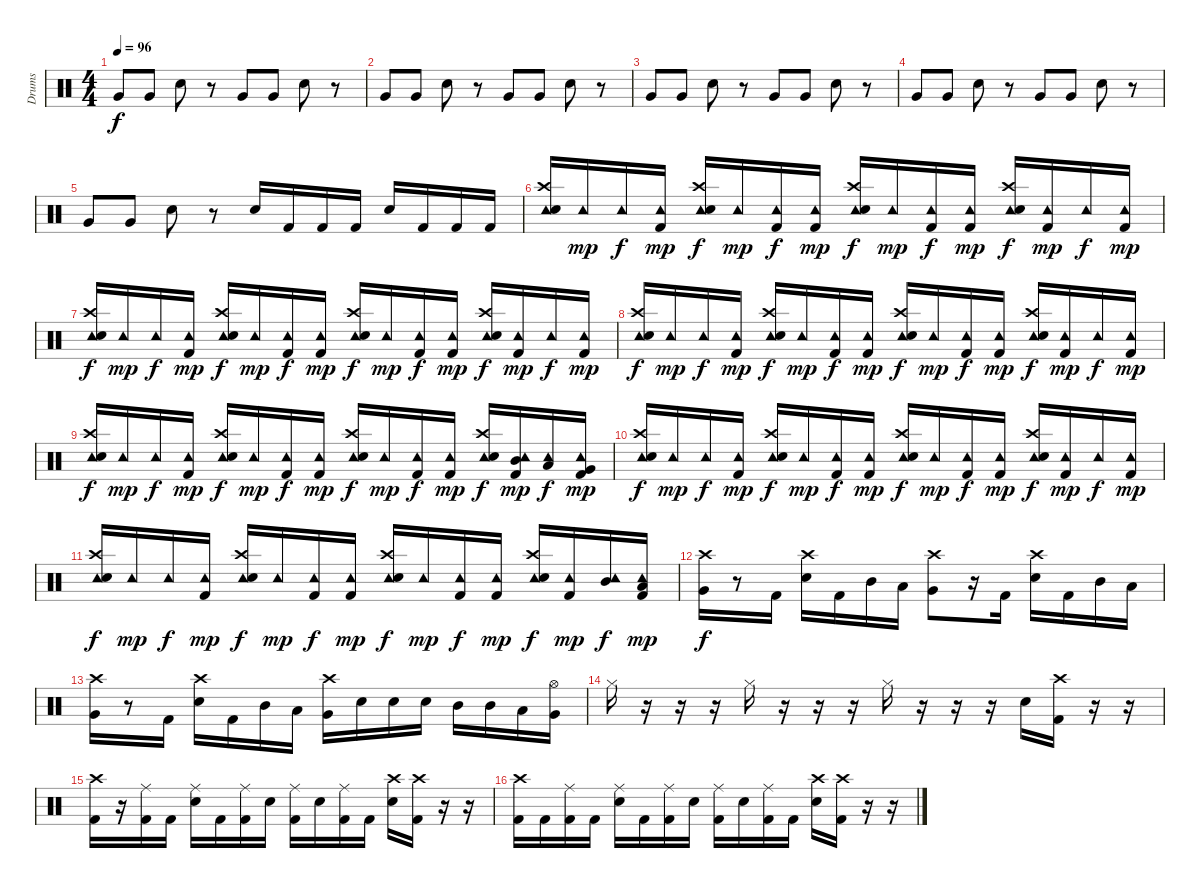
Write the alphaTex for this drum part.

\track ("Drums" "Drums") {instrument percussion}
\staff {score}
\articulation defaults
\ts (4 4)
\tempo 96
\clef neutral
\ks c "Very Low Tom (hit)".8{dy f} "Very Low Tom (hit)".8 "Electric Snare (hit)".8
r.8 "Very Low Tom (hit)".8 "Very Low Tom (hit)".8 "Electric Snare (hit)".8 r.8 |
"Very Low Tom (hit)".8 "Very Low Tom (hit)".8 "Electric Snare (hit)".8 r.8 "Very Low Tom (hit)".8 "Very Low Tom (hit)".8 "Electric Snare (hit)".8 r.8 |
"Very Low Tom (hit)".8 "Very Low Tom (hit)".8 "Electric Snare (hit)".8 r.8 "Very Low Tom (hit)".8 "Very Low Tom (hit)".8 "Electric Snare (hit)".8 r.8 |
"Very Low Tom (hit)".8 "Very Low Tom (hit)".8 "Electric Snare (hit)".8 r.8 "Very Low Tom (hit)".8 "Very Low Tom (hit)".8 "Electric Snare (hit)".8 r.8 |
"Very Low Tom (hit)".8 "Very Low Tom (hit)".8 "Electric Snare (hit)".8 r.8 "Electric Snare (hit)".16 "Kick (hit) 2".16 "Kick (hit) 2".16 "Kick (hit) 2".16 "Electric Snare (hit)".16 "Kick (hit) 2".16 "Kick (hit) 2".16 "Kick (hit) 2".16 |
("Crash high (hit)" "Tambourine (hit)" "Electric Snare (hit)").16 "Tambourine (hit)".16{dy mp} "Tambourine (hit)".16{dy f} ("Tambourine (hit)" "Kick (hit) 2").16{dy mp} ("Crash high (hit)" "Tambourine (hit)" "Electric Snare (hit)").16{dy f} "Tambourine (hit)".16{dy mp} ("Tambourine (hit)" "Kick (hit) 2").16{dy f} ("Tambourine (hit)" "Kick (hit) 2").16{dy mp} ("Crash high (hit)" "Tambourine (hit)" "Electric Snare (hit)").16{dy f} "Tambourine (hit)".16{dy mp} ("Tambourine (hit)" "Kick (hit) 2").16{dy f} ("Tambourine (hit)" "Kick (hit) 2").16{dy mp} ("Crash high (hit)" "Tambourine (hit)" "Electric Snare (hit)").16{dy f} ("Tambourine (hit)" "Kick (hit) 2").16{dy mp} "Tambourine (hit)".16{dy f} ("Tambourine (hit)" "Kick (hit) 2").16{dy mp} |
("Crash high (hit)" "Tambourine (hit)" "Electric Snare (hit)").16{dy f} "Tambourine (hit)".16{dy mp} "Tambourine (hit)".16{dy f} ("Tambourine (hit)" "Kick (hit) 2").16{dy mp} ("Crash high (hit)" "Tambourine (hit)" "Electric Snare (hit)").16{dy f} "Tambourine (hit)".16{dy mp} ("Tambourine (hit)" "Kick (hit) 2").16{dy f} ("Tambourine (hit)" "Kick (hit) 2").16{dy mp} ("Crash high (hit)" "Tambourine (hit)" "Electric Snare (hit)").16{dy f} "Tambourine (hit)".16{dy mp} ("Tambourine (hit)" "Kick (hit) 2").16{dy f} ("Tambourine (hit)" "Kick (hit) 2").16{dy mp} ("Crash high (hit)" "Tambourine (hit)" "Electric Snare (hit)").16{dy f} ("Tambourine (hit)" "Kick (hit) 2").16{dy mp} "Tambourine (hit)".16{dy f} ("Tambourine (hit)" "Kick (hit) 2").16{dy mp} |
("Crash high (hit)" "Tambourine (hit)" "Electric Snare (hit)").16{dy f} "Tambourine (hit)".16{dy mp} "Tambourine (hit)".16{dy f} ("Tambourine (hit)" "Kick (hit) 2").16{dy mp} ("Crash high (hit)" "Tambourine (hit)" "Electric Snare (hit)").16{dy f} "Tambourine (hit)".16{dy mp} ("Tambourine (hit)" "Kick (hit) 2").16{dy f} ("Tambourine (hit)" "Kick (hit) 2").16{dy mp} ("Crash high (hit)" "Tambourine (hit)" "Electric Snare (hit)").16{dy f} "Tambourine (hit)".16{dy mp} ("Tambourine (hit)" "Kick (hit) 2").16{dy f} ("Tambourine (hit)" "Kick (hit) 2").16{dy mp} ("Crash high (hit)" "Tambourine (hit)" "Electric Snare (hit)").16{dy f} ("Tambourine (hit)" "Kick (hit) 2").16{dy mp} "Tambourine (hit)".16{dy f} ("Tambourine (hit)" "Kick (hit) 2").16{dy mp} |
("Crash high (hit)" "Tambourine (hit)" "Electric Snare (hit)").16{dy f} "Tambourine (hit)".16{dy mp} "Tambourine (hit)".16{dy f} ("Tambourine (hit)" "Kick (hit) 2").16{dy mp} ("Crash high (hit)" "Tambourine (hit)" "Electric Snare (hit)").16{dy f} "Tambourine (hit)".16{dy mp} ("Tambourine (hit)" "Kick (hit) 2").16{dy f} ("Tambourine (hit)" "Kick (hit) 2").16{dy mp} ("Crash high (hit)" "Tambourine (hit)" "Electric Snare (hit)").16{dy f} "Tambourine (hit)".16{dy mp} ("Tambourine (hit)" "Kick (hit) 2").16{dy f} ("Tambourine (hit)" "Kick (hit) 2").16{dy mp} ("Crash high (hit)" "Tambourine (hit)" "Electric Snare (hit)").16{dy f} ("Tambourine (hit)" "Mid Tom (hit)" "Kick (hit) 2").16{dy mp} ("Tambourine (hit)" "Low Tom (hit)").16{dy f} ("Tambourine (hit)" "Very Low Tom (hit)" "Kick (hit) 2").16{dy mp} |
("Crash high (hit)" "Tambourine (hit)" "Electric Snare (hit)").16{dy f} "Tambourine (hit)".16{dy mp} "Tambourine (hit)".16{dy f} ("Tambourine (hit)" "Kick (hit) 2").16{dy mp} ("Crash high (hit)" "Tambourine (hit)" "Electric Snare (hit)").16{dy f} "Tambourine (hit)".16{dy mp} ("Tambourine (hit)" "Kick (hit) 2").16{dy f} ("Tambourine (hit)" "Kick (hit) 2").16{dy mp} ("Crash high (hit)" "Tambourine (hit)" "Electric Snare (hit)").16{dy f} "Tambourine (hit)".16{dy mp} ("Tambourine (hit)" "Kick (hit) 2").16{dy f} ("Tambourine (hit)" "Kick (hit) 2").16{dy mp} ("Crash high (hit)" "Tambourine (hit)" "Electric Snare (hit)").16{dy f} ("Tambourine (hit)" "Kick (hit) 2").16{dy mp} "Tambourine (hit)".16{dy f} ("Tambourine (hit)" "Kick (hit) 2").16{dy mp} |
("Crash high (hit)" "Tambourine (hit)" "Electric Snare (hit)").16{dy f} "Tambourine (hit)".16{dy mp} "Tambourine (hit)".16{dy f} ("Tambourine (hit)" "Kick (hit) 2").16{dy mp} ("Crash high (hit)" "Tambourine (hit)" "Electric Snare (hit)").16{dy f} "Tambourine (hit)".16{dy mp} ("Tambourine (hit)" "Kick (hit) 2").16{dy f} ("Tambourine (hit)" "Kick (hit) 2").16{dy mp} ("Crash high (hit)" "Tambourine (hit)" "Electric Snare (hit)").16{dy f} "Tambourine (hit)".16{dy mp} ("Tambourine (hit)" "Kick (hit) 2").16{dy f} ("Tambourine (hit)" "Kick (hit) 2").16{dy mp} ("Crash high (hit)" "Tambourine (hit)" "Electric Snare (hit)").16{dy f} ("Tambourine (hit)" "Kick (hit) 2").16{dy mp} ("Tambourine (hit)" "Mid Tom (hit)").16{dy f} ("Tambourine (hit)" "Low Tom (hit)" "Kick (hit) 2").16{dy mp} |
("Crash high (hit)" "Very Low Tom (hit)").16{dy f} r.8 "Kick (hit) 2".16 ("Crash high (hit)" "Electric Snare (hit)").16 "Kick (hit) 2".16 "Mid Tom (hit)".16 "Low Tom (hit)".16 ("Crash high (hit)" "Very Low Tom (hit)").8 r.16 "Kick (hit) 2".16 ("Crash high (hit)" "Electric Snare (hit)").16 "Kick (hit) 2".16 "Mid Tom (hit)".16 "Low Tom (hit)".16 |
("Crash high (hit)" "Very Low Tom (hit)").16 r.8 "Kick (hit) 2".16 ("Crash high (hit)" "Electric Snare (hit)").16 "Kick (hit) 2".16 "Mid Tom (hit)".16 "Low Tom (hit)".16 ("Crash high (hit)" "Very Low Tom (hit)").16 "Electric Snare (hit)".16 "Electric Snare (hit)".16 "Electric Snare (hit)".16 "Mid Tom (hit)".16 "Mid Tom (hit)".16 "Low Tom (hit)".16 ("Hi-Hat (open)" "Very Low Tom (hit)").16 |
"Hi-Hat (closed)".16 r.16 r.16 r.16 "Hi-Hat (closed)".16 r.16 r.16 r.16 "Hi-Hat (closed)".16 r.16 r.16 r.16 "Electric Snare (hit)".16 ("Crash high (hit)" "Kick (hit) 2").16 r.16 r.16 |
("Crash high (hit)" "Kick (hit) 2").16 r.16 ("Ride (middle)" "Kick (hit) 2").16 "Kick (hit) 2".16 ("Ride (middle)" "Electric Snare (hit)").16 "Kick (hit) 2".16 ("Ride (middle)" "Kick (hit) 2").16 "Electric Snare (hit)".16 ("Ride (middle)" "Kick (hit) 2").16 "Electric Snare (hit)".16 ("Ride (middle)" "Kick (hit) 2").16 "Kick (hit) 2".16 ("Crash high (hit)" "Electric Snare (hit)").16 ("Crash high (hit)" "Kick (hit) 2").16 r.16 r.16 |
("Crash high (hit)" "Kick (hit) 2").16 "Kick (hit) 2".16 ("Ride (middle)" "Kick (hit) 2").16 "Kick (hit) 2".16 ("Ride (middle)" "Electric Snare (hit)").16 "Kick (hit) 2".16 ("Ride (middle)" "Kick (hit) 2").16 "Electric Snare (hit)".16 ("Ride (middle)" "Kick (hit) 2").16 "Electric Snare (hit)".16 ("Ride (middle)" "Kick (hit) 2").16 "Kick (hit) 2".16 ("Crash high (hit)" "Electric Snare (hit)").16 ("Crash high (hit)" "Kick (hit) 2").16 r.16 r.16
